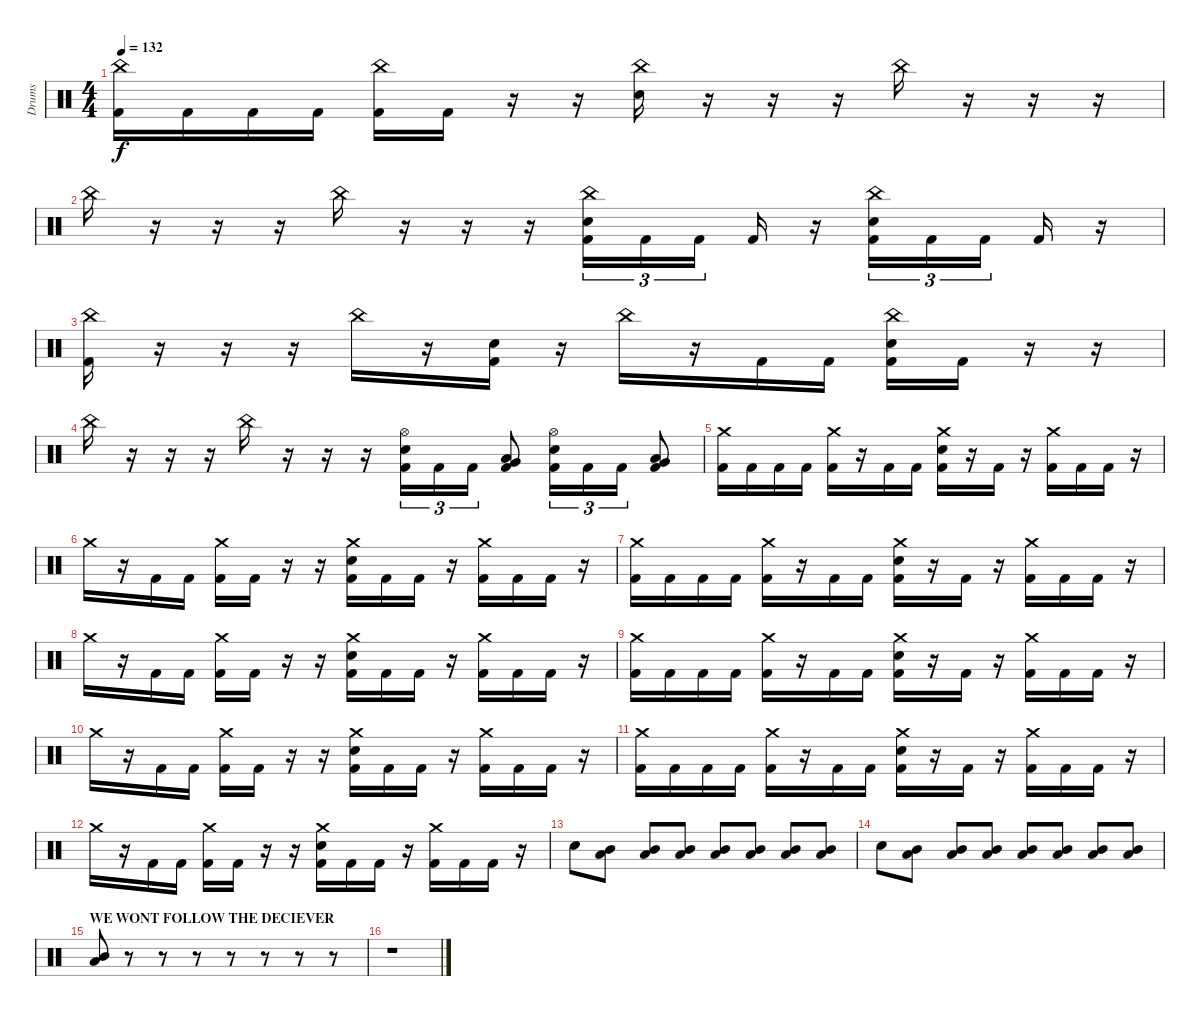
\track ("Drums" "Drums") {instrument percussion}
\staff {score}
\articulation defaults
\ts (4 4)
\tempo 132
\clef neutral
\ks c
("China (hit)" "Kick (hit) 2").16{dy f} "Kick (hit) 2".16 "Kick (hit) 2".16 "Kick (hit) 2".16 ("China (hit)" "Kick (hit) 2").16 "Kick (hit) 2".16 r.16 r.16 ("China (hit)" "Electric Snare (hit)").16 r.16 r.16 r.16 "China (hit)".16 r.16 r.16 r.16 |
"China (hit)".16 r.16 r.16 r.16 "China (hit)".16 r.16 r.16 r.16 ("China (hit)" "Electric Snare (hit)" "Kick (hit) 2").16{tu (3 2)} "Kick (hit) 2".16{tu (3 2)} "Kick (hit) 2".16{tu (3 2)} "Kick (hit) 2".16 r.16 ("China (hit)" "Electric Snare (hit)" "Kick (hit) 2").16{tu (3 2)} "Kick (hit) 2".16{tu (3 2)} "Kick (hit) 2".16{tu (3 2)} "Kick (hit) 2".16 r.16 |
("China (hit)" "Kick (hit) 2").16 r.16 r.16 r.16 "China (hit)".16 r.16 ("Electric Snare (hit)" "Kick (hit) 2").16 r.16 "China (hit)".16 r.16 "Kick (hit) 2".16 "Kick (hit) 2".16 ("China (hit)" "Electric Snare (hit)" "Kick (hit) 2").16 "Kick (hit) 2".16 r.16 r.16 |
"China (hit)".16 r.16 r.16 r.16 "China (hit)".16 r.16 r.16 r.16 ("Hi-Hat (open)" "Electric Snare (hit)" "Kick (hit) 2").16{tu (3 2)} "Kick (hit) 2".16{tu (3 2)} "Kick (hit) 2".16{tu (3 2)} ("Very Low Tom (hit)" "Low Floor Tom (hit)" "Kick (hit) 2").8 ("Hi-Hat (open)" "Electric Snare (hit)" "Kick (hit) 2").16{tu (3 2)} "Kick (hit) 2".16{tu (3 2)} "Kick (hit) 2".16{tu (3 2)} ("Very Low Tom (hit)" "Low Floor Tom (hit)" "Kick (hit) 2").8 |
("Crash medium (hit)" "Kick (hit) 2").16 "Kick (hit) 2".16 "Kick (hit) 2".16 "Kick (hit) 2".16 ("Crash medium (hit)" "Kick (hit) 2").16 r.16 "Kick (hit) 2".16 "Kick (hit) 2".16 ("Crash medium (hit)" "Electric Snare (hit)" "Kick (hit) 2").16 r.16 "Kick (hit) 2".16 r.16 ("Crash medium (hit)" "Kick (hit) 2").16 "Kick (hit) 2".16 "Kick (hit) 2".16 r.16 |
"Crash medium (hit)".16 r.16 "Kick (hit) 2".16 "Kick (hit) 2".16 ("Crash medium (hit)" "Kick (hit) 2").16 "Kick (hit) 2".16 r.16 r.16 ("Crash medium (hit)" "Electric Snare (hit)" "Kick (hit) 2").16 "Kick (hit) 2".16 "Kick (hit) 2".16 r.16 ("Crash medium (hit)" "Kick (hit) 2").16 "Kick (hit) 2".16 "Kick (hit) 2".16 r.16 |
("Crash medium (hit)" "Kick (hit) 2").16 "Kick (hit) 2".16 "Kick (hit) 2".16 "Kick (hit) 2".16 ("Crash medium (hit)" "Kick (hit) 2").16 r.16 "Kick (hit) 2".16 "Kick (hit) 2".16 ("Crash medium (hit)" "Electric Snare (hit)" "Kick (hit) 2").16 r.16 "Kick (hit) 2".16 r.16 ("Crash medium (hit)" "Kick (hit) 2").16 "Kick (hit) 2".16 "Kick (hit) 2".16 r.16 |
"Crash medium (hit)".16 r.16 "Kick (hit) 2".16 "Kick (hit) 2".16 ("Crash medium (hit)" "Kick (hit) 2").16 "Kick (hit) 2".16 r.16 r.16 ("Crash medium (hit)" "Electric Snare (hit)" "Kick (hit) 2").16 "Kick (hit) 2".16 "Kick (hit) 2".16 r.16 ("Crash medium (hit)" "Kick (hit) 2").16 "Kick (hit) 2".16 "Kick (hit) 2".16 r.16 |
("Crash medium (hit)" "Kick (hit) 2").16 "Kick (hit) 2".16 "Kick (hit) 2".16 "Kick (hit) 2".16 ("Crash medium (hit)" "Kick (hit) 2").16 r.16 "Kick (hit) 2".16 "Kick (hit) 2".16 ("Crash medium (hit)" "Electric Snare (hit)" "Kick (hit) 2").16 r.16 "Kick (hit) 2".16 r.16 ("Crash medium (hit)" "Kick (hit) 2").16 "Kick (hit) 2".16 "Kick (hit) 2".16 r.16 |
"Crash medium (hit)".16 r.16 "Kick (hit) 2".16 "Kick (hit) 2".16 ("Crash medium (hit)" "Kick (hit) 2").16 "Kick (hit) 2".16 r.16 r.16 ("Crash medium (hit)" "Electric Snare (hit)" "Kick (hit) 2").16 "Kick (hit) 2".16 "Kick (hit) 2".16 r.16 ("Crash medium (hit)" "Kick (hit) 2").16 "Kick (hit) 2".16 "Kick (hit) 2".16 r.16 |
("Crash medium (hit)" "Kick (hit) 2").16 "Kick (hit) 2".16 "Kick (hit) 2".16 "Kick (hit) 2".16 ("Crash medium (hit)" "Kick (hit) 2").16 r.16 "Kick (hit) 2".16 "Kick (hit) 2".16 ("Crash medium (hit)" "Electric Snare (hit)" "Kick (hit) 2").16 r.16 "Kick (hit) 2".16 r.16 ("Crash medium (hit)" "Kick (hit) 2").16 "Kick (hit) 2".16 "Kick (hit) 2".16 r.16 |
"Crash medium (hit)".16 r.16 "Kick (hit) 2".16 "Kick (hit) 2".16 ("Crash medium (hit)" "Kick (hit) 2").16 "Kick (hit) 2".16 r.16 r.16 ("Crash medium (hit)" "Electric Snare (hit)" "Kick (hit) 2").16 "Kick (hit) 2".16 "Kick (hit) 2".16 r.16 ("Crash medium (hit)" "Kick (hit) 2").16 "Kick (hit) 2".16 "Kick (hit) 2".16 r.16 |
"Electric Snare (hit)".8 ("Mid Tom (hit)" "Low Tom (hit)").8 ("Mid Tom (hit)" "Low Tom (hit)").8 ("Mid Tom (hit)" "Low Tom (hit)").8 ("Mid Tom (hit)" "Low Tom (hit)").8 ("Mid Tom (hit)" "Low Tom (hit)").8 ("Mid Tom (hit)" "Low Tom (hit)").8 ("Mid Tom (hit)" "Low Tom (hit)").8 |
"Electric Snare (hit)".8 ("Mid Tom (hit)" "Low Tom (hit)").8 ("Mid Tom (hit)" "Low Tom (hit)").8 ("Mid Tom (hit)" "Low Tom (hit)").8 ("Mid Tom (hit)" "Low Tom (hit)").8 ("Mid Tom (hit)" "Low Tom (hit)").8 ("Mid Tom (hit)" "Low Tom (hit)").8 ("Mid Tom (hit)" "Low Tom (hit)").8 |
\section ("" "WE WONT FOLLOW THE DECIEVER")
("Mid Tom (hit)" "Low Tom (hit)").8 r.8 r.8 r.8 r.8 r.8 r.8 r.8 |
r.1
